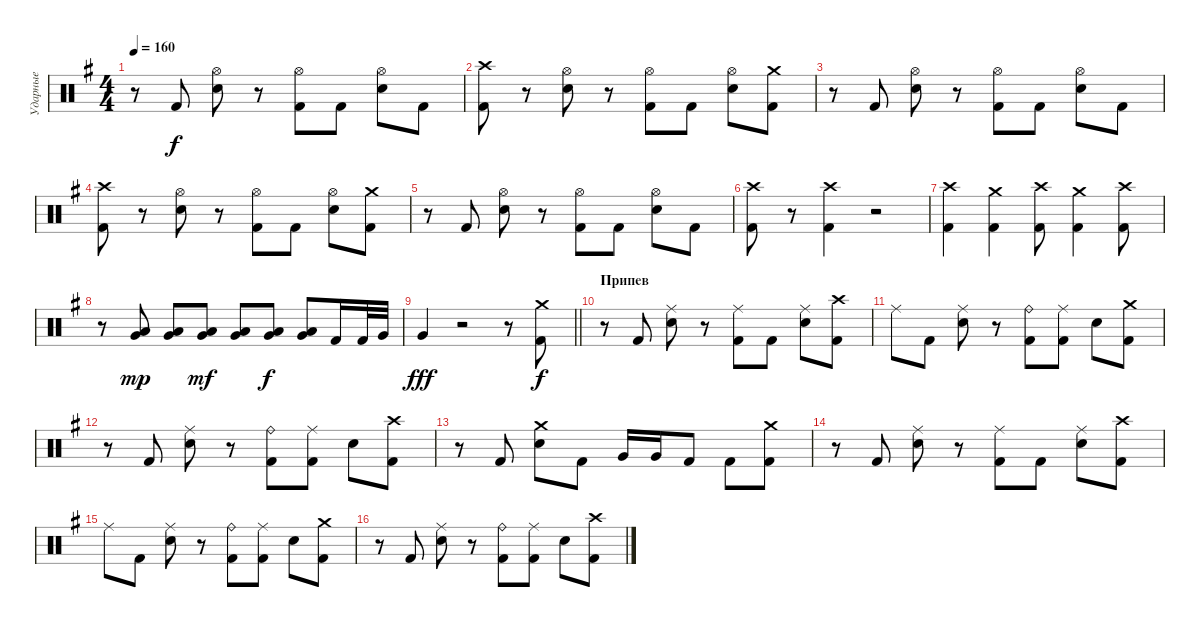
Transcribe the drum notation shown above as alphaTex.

\track ("Ударные" "Ударные") {instrument percussion}
\staff {score}
\articulation defaults
\ts (4 4)
\tempo 160
\clef neutral
\ks eminor
r.8{dy f} "Kick (hit) 2".8 ("Hi-Hat (open)" "Electric Snare (hit)").8 r.8 ("Hi-Hat (open)" "Kick (hit) 2").8 "Kick (hit) 2".8 ("Hi-Hat (open)" "Electric Snare (hit)").8 "Kick (hit) 2".8 |
("Crash high (hit)" "Kick (hit) 2").8 r.8 ("Hi-Hat (open)" "Electric Snare (hit)").8 r.8 ("Hi-Hat (open)" "Kick (hit) 2").8 "Kick (hit) 2".8 ("Hi-Hat (open)" "Electric Snare (hit)").8 ("Crash medium (hit)" "Kick (hit) 2").8 |
r.8 "Kick (hit) 2".8 ("Hi-Hat (open)" "Electric Snare (hit)").8 r.8 ("Hi-Hat (open)" "Kick (hit) 2").8 "Kick (hit) 2".8 ("Hi-Hat (open)" "Electric Snare (hit)").8 "Kick (hit) 2".8 |
("Crash high (hit)" "Kick (hit) 2").8 r.8 ("Hi-Hat (open)" "Electric Snare (hit)").8 r.8 ("Hi-Hat (open)" "Kick (hit) 2").8 "Kick (hit) 2".8 ("Hi-Hat (open)" "Electric Snare (hit)").8 ("Crash medium (hit)" "Kick (hit) 2").8 |
r.8 "Kick (hit) 2".8 ("Hi-Hat (open)" "Electric Snare (hit)").8 r.8 ("Hi-Hat (open)" "Kick (hit) 2").8 "Kick (hit) 2".8 ("Hi-Hat (open)" "Electric Snare (hit)").8 "Kick (hit) 2".8 |
("Crash high (hit)" "Kick (hit) 2").8 r.8 ("Crash high (hit)" "Kick (hit) 2").4 r.2 |
("Crash high (hit)" "Kick (hit) 2").4 ("Crash medium (hit)" "Kick (hit) 2").4 ("Crash high (hit)" "Kick (hit) 2").8 ("Crash medium (hit)" "Kick (hit) 2").4 ("Crash high (hit)" "Kick (hit) 2").8 |
r.8 ("Low Tom (hit)" "Very Low Tom (hit)").8{dy mp} ("Low Tom (hit)" "Very Low Tom (hit)").8 ("Low Tom (hit)" "Very Low Tom (hit)").8{dy mf} ("Low Tom (hit)" "Very Low Tom (hit)").8 ("Low Tom (hit)" "Very Low Tom (hit)").8{dy f} ("Low Tom (hit)" "Very Low Tom (hit)").8 "Kick (hit) 2".16 "Kick (hit) 2".32 "Very Low Tom (hit)".32 |
\barLineRight lightlight "Very Low Tom (hit)".4{dy fff}
r.2 r.8 ("Crash medium (hit)" "Kick (hit) 2").8{dy f} |
\section ("" "Припев")
r.8 "Kick (hit) 2".8 ("Ride (middle)" "Electric Snare (hit)").8 r.8 ("Ride (middle)" "Kick (hit) 2").8 "Kick (hit) 2".8 ("Ride (middle)" "Electric Snare (hit)").8 ("Crash high (hit)" "Kick (hit) 2").8 |
"Ride (middle)".8 "Kick (hit) 2".8 ("Ride (middle)" "Electric Snare (hit)").8 r.8 ("Ride (bell)" "Kick (hit) 2").8 ("Ride (middle)" "Kick (hit) 2").8 "Electric Snare (hit)".8 ("Crash medium (hit)" "Kick (hit) 2").8 |
r.8 "Kick (hit) 2".8 ("Ride (middle)" "Electric Snare (hit)").8 r.8 ("Ride (bell)" "Kick (hit) 2").8 ("Ride (middle)" "Kick (hit) 2").8 "Electric Snare (hit)".8 ("Crash high (hit)" "Kick (hit) 2").8 |
r.8 "Kick (hit) 2".8 ("Crash medium (hit)" "Electric Snare (hit)").8 "Kick (hit) 2".8 "Very Low Tom (hit)".16 "Very Low Tom (hit)".16 "Kick (hit) 2".8 "Kick (hit) 2".8 ("Crash medium (hit)" "Kick (hit) 2").8 |
r.8 "Kick (hit) 2".8 ("Ride (middle)" "Electric Snare (hit)").8 r.8 ("Ride (middle)" "Kick (hit) 2").8 "Kick (hit) 2".8 ("Ride (middle)" "Electric Snare (hit)").8 ("Crash high (hit)" "Kick (hit) 2").8 |
"Ride (middle)".8 "Kick (hit) 2".8 ("Ride (middle)" "Electric Snare (hit)").8 r.8 ("Ride (bell)" "Kick (hit) 2").8 ("Ride (middle)" "Kick (hit) 2").8 "Electric Snare (hit)".8 ("Crash medium (hit)" "Kick (hit) 2").8 |
r.8 "Kick (hit) 2".8 ("Ride (middle)" "Electric Snare (hit)").8 r.8 ("Ride (bell)" "Kick (hit) 2").8 ("Ride (middle)" "Kick (hit) 2").8 "Electric Snare (hit)".8 ("Crash high (hit)" "Kick (hit) 2").8
